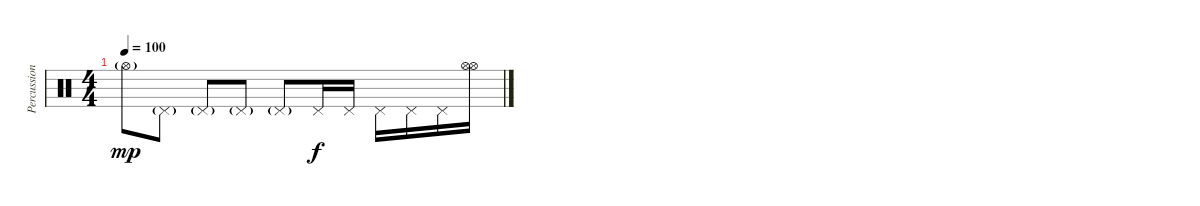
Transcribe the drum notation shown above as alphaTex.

\track ("Percussion" "Percussion") {instrument percussion}
\staff {score}
\articulation defaults
\ts (4 4)
\tempo 100
\clef neutral
\ks c "Hi-Hat (open)"{g}.8{dy mp} "Pedal Hi-Hat (hit)"{g}.8 "Pedal Hi-Hat (hit)"{g}.8 "Pedal Hi-Hat (hit)"{g}.8 "Pedal Hi-Hat (hit)"{g}.8 "Pedal Hi-Hat (hit)".16{dy f} "Pedal Hi-Hat (hit)".16 "Pedal Hi-Hat (hit)".16 "Pedal Hi-Hat (hit)".16 "Pedal Hi-Hat (hit)".16
("Hi-Hat (open)" "Hi-Hat (open)").16
